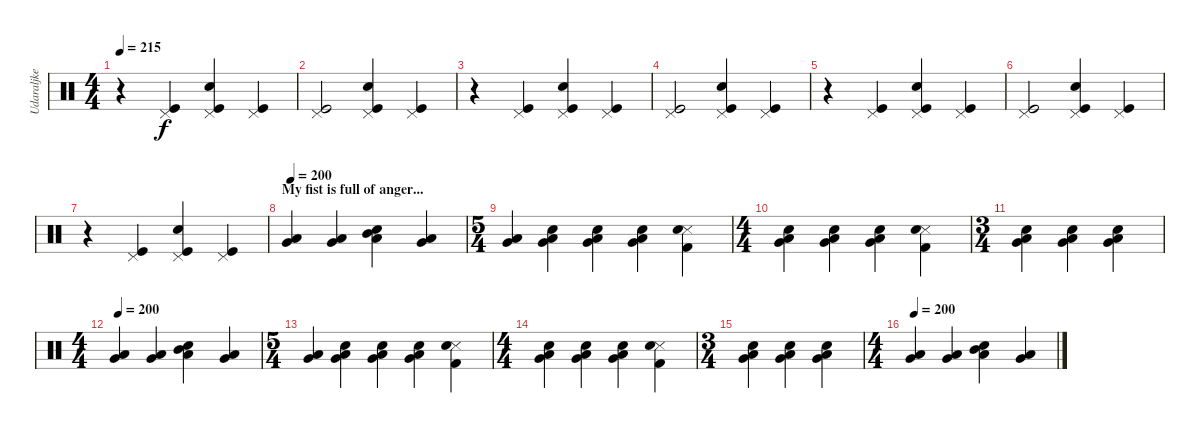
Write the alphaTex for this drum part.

\track ("Udaraljke" "Udaraljke") {instrument percussion}
\staff {score}
\articulation defaults
\ts (4 4)
\tempo 215
\clef neutral
\ks c
r.4{dy f} ("Kick (hit)" "Pedal Hi-Hat (hit)").4 ("Kick (hit)" "Snare (hit) 2" "Pedal Hi-Hat (hit)").4 ("Kick (hit)" "Pedal Hi-Hat (hit)").4 |
("Kick (hit)" "Pedal Hi-Hat (hit)").2 ("Kick (hit)" "Snare (hit) 2" "Pedal Hi-Hat (hit)").4 ("Kick (hit)" "Pedal Hi-Hat (hit)").4 |
r.4 ("Kick (hit)" "Pedal Hi-Hat (hit)").4 ("Kick (hit)" "Snare (hit) 2" "Pedal Hi-Hat (hit)").4 ("Kick (hit)" "Pedal Hi-Hat (hit)").4 |
("Kick (hit)" "Pedal Hi-Hat (hit)").2 ("Kick (hit)" "Snare (hit) 2" "Pedal Hi-Hat (hit)").4 ("Kick (hit)" "Pedal Hi-Hat (hit)").4 |
r.4 ("Kick (hit)" "Pedal Hi-Hat (hit)").4 ("Kick (hit)" "Snare (hit) 2" "Pedal Hi-Hat (hit)").4 ("Kick (hit)" "Pedal Hi-Hat (hit)").4 |
("Kick (hit)" "Pedal Hi-Hat (hit)").2 ("Kick (hit)" "Snare (hit) 2" "Pedal Hi-Hat (hit)").4 ("Kick (hit)" "Pedal Hi-Hat (hit)").4 |
r.4 ("Kick (hit)" "Pedal Hi-Hat (hit)").4 ("Kick (hit)" "Snare (hit) 2" "Pedal Hi-Hat (hit)").4 ("Kick (hit)" "Pedal Hi-Hat (hit)").4 |
\section ("" "My fist is full of anger...")
\tempo 205
\tempo 200
("Very Low Tom (hit)" "Low Tom (hit)").4{volume 10 balance 8} ("Very Low Tom (hit)" "Low Tom (hit)").4 ("Mid Tom (hit)" "Low Tom (hit)" "Snare (hit) 2").4 ("Very Low Tom (hit)" "Low Tom (hit)").4 |
\ts (5 4)
("Very Low Tom (hit)" "Low Tom (hit)").4 ("Very Low Tom (hit)" "Low Floor Tom (hit)" "Snare (hit) 2").4 ("Very Low Tom (hit)" "Low Floor Tom (hit)" "Snare (hit) 2").4 ("Very Low Tom (hit)" "Low Floor Tom (hit)" "Snare (hit) 2").4 ("Kick (hit) 2" "Metronome (hit)" "Snare (hit) 2").4 |
\ts (4 4)
("Very Low Tom (hit)" "Low Floor Tom (hit)" "Snare (hit) 2").4 ("Very Low Tom (hit)" "Low Floor Tom (hit)" "Snare (hit) 2").4 ("Very Low Tom (hit)" "Low Floor Tom (hit)" "Snare (hit) 2").4 ("Kick (hit) 2" "Metronome (hit)" "Snare (hit) 2").4 |
\ts (3 4)
("Very Low Tom (hit)" "Low Floor Tom (hit)" "Snare (hit) 2").4 ("Very Low Tom (hit)" "Low Floor Tom (hit)" "Snare (hit) 2").4 ("Very Low Tom (hit)" "Low Floor Tom (hit)" "Snare (hit) 2").4 |
\ts (4 4)
\tempo 200
("Very Low Tom (hit)" "Low Tom (hit)").4{volume 10 balance 8} ("Very Low Tom (hit)" "Low Tom (hit)").4 ("Mid Tom (hit)" "Low Tom (hit)" "Snare (hit) 2").4 ("Very Low Tom (hit)" "Low Tom (hit)").4 |
\ts (5 4)
("Very Low Tom (hit)" "Low Tom (hit)").4 ("Very Low Tom (hit)" "Low Floor Tom (hit)" "Snare (hit) 2").4 ("Very Low Tom (hit)" "Low Floor Tom (hit)" "Snare (hit) 2").4 ("Very Low Tom (hit)" "Low Floor Tom (hit)" "Snare (hit) 2").4 ("Kick (hit) 2" "Metronome (hit)" "Snare (hit) 2").4 |
\ts (4 4)
("Very Low Tom (hit)" "Low Floor Tom (hit)" "Snare (hit) 2").4 ("Very Low Tom (hit)" "Low Floor Tom (hit)" "Snare (hit) 2").4 ("Very Low Tom (hit)" "Low Floor Tom (hit)" "Snare (hit) 2").4 ("Kick (hit) 2" "Metronome (hit)" "Snare (hit) 2").4 |
\ts (3 4)
("Very Low Tom (hit)" "Low Floor Tom (hit)" "Snare (hit) 2").4 ("Very Low Tom (hit)" "Low Floor Tom (hit)" "Snare (hit) 2").4 ("Very Low Tom (hit)" "Low Floor Tom (hit)" "Snare (hit) 2").4 |
\ts (4 4)
\tempo 200
("Very Low Tom (hit)" "Low Tom (hit)").4{volume 10 balance 8} ("Very Low Tom (hit)" "Low Tom (hit)").4 ("Mid Tom (hit)" "Low Tom (hit)" "Snare (hit) 2").4 ("Very Low Tom (hit)" "Low Tom (hit)").4
